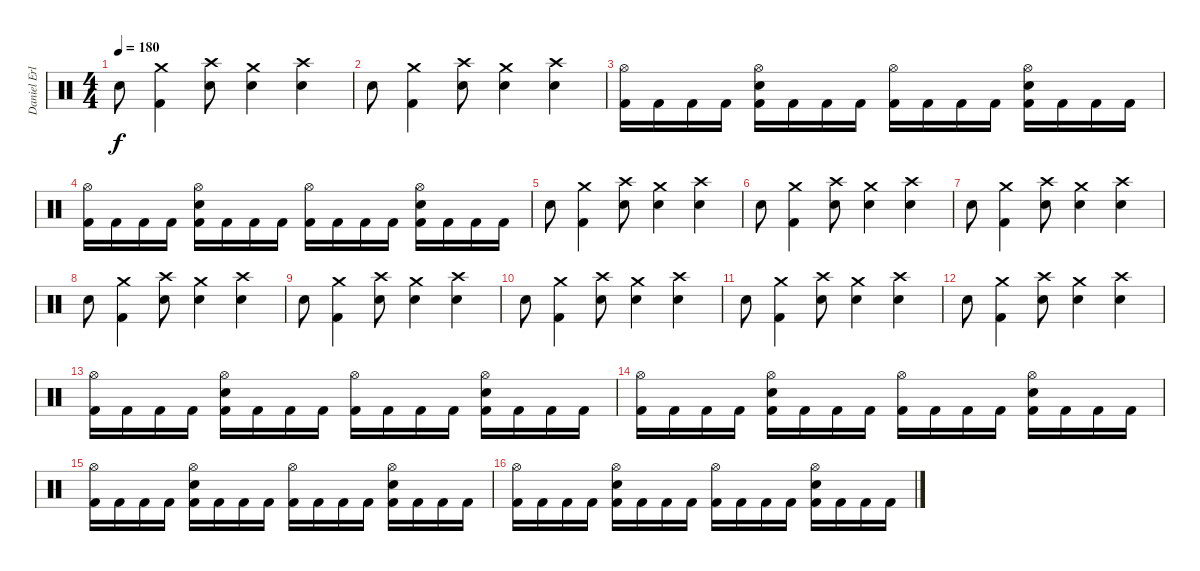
\track ("Daniel Erlandson" "Daniel Erl") {instrument percussion}
\staff {score}
\articulation defaults
\ts (4 4)
\tempo 180
\clef neutral
\ks c "Electric Snare (hit)".8{dy f}
("Crash medium (hit)" "Kick (hit) 2").4 ("Crash high (hit)" "Electric Snare (hit)").8 ("Crash medium (hit)" "Electric Snare (hit)").4 ("Crash high (hit)" "Electric Snare (hit)").4 |
"Electric Snare (hit)".8 ("Crash medium (hit)" "Kick (hit) 2").4 ("Crash high (hit)" "Electric Snare (hit)").8 ("Crash medium (hit)" "Electric Snare (hit)").4 ("Crash high (hit)" "Electric Snare (hit)").4 |
("Hi-Hat (open)" "Kick (hit) 2").16 "Kick (hit) 2".16 "Kick (hit) 2".16 "Kick (hit) 2".16 ("Hi-Hat (open)" "Electric Snare (hit)" "Kick (hit) 2").16 "Kick (hit) 2".16 "Kick (hit) 2".16 "Kick (hit) 2".16 ("Hi-Hat (open)" "Kick (hit) 2").16 "Kick (hit) 2".16 "Kick (hit) 2".16 "Kick (hit) 2".16 ("Hi-Hat (open)" "Electric Snare (hit)" "Kick (hit) 2").16 "Kick (hit) 2".16 "Kick (hit) 2".16 "Kick (hit) 2".16 |
("Hi-Hat (open)" "Kick (hit) 2").16 "Kick (hit) 2".16 "Kick (hit) 2".16 "Kick (hit) 2".16 ("Hi-Hat (open)" "Electric Snare (hit)" "Kick (hit) 2").16 "Kick (hit) 2".16 "Kick (hit) 2".16 "Kick (hit) 2".16 ("Hi-Hat (open)" "Kick (hit) 2").16 "Kick (hit) 2".16 "Kick (hit) 2".16 "Kick (hit) 2".16 ("Hi-Hat (open)" "Electric Snare (hit)" "Kick (hit) 2").16 "Kick (hit) 2".16 "Kick (hit) 2".16 "Kick (hit) 2".16 |
"Electric Snare (hit)".8 ("Crash medium (hit)" "Kick (hit) 2").4 ("Crash high (hit)" "Electric Snare (hit)").8 ("Crash medium (hit)" "Electric Snare (hit)").4 ("Crash high (hit)" "Electric Snare (hit)").4 |
"Electric Snare (hit)".8 ("Crash medium (hit)" "Kick (hit) 2").4 ("Crash high (hit)" "Electric Snare (hit)").8 ("Crash medium (hit)" "Electric Snare (hit)").4 ("Crash high (hit)" "Electric Snare (hit)").4 |
"Electric Snare (hit)".8 ("Crash medium (hit)" "Kick (hit) 2").4 ("Crash high (hit)" "Electric Snare (hit)").8 ("Crash medium (hit)" "Electric Snare (hit)").4 ("Crash high (hit)" "Electric Snare (hit)").4 |
"Electric Snare (hit)".8 ("Crash medium (hit)" "Kick (hit) 2").4 ("Crash high (hit)" "Electric Snare (hit)").8 ("Crash medium (hit)" "Electric Snare (hit)").4 ("Crash high (hit)" "Electric Snare (hit)").4 |
"Electric Snare (hit)".8 ("Crash medium (hit)" "Kick (hit) 2").4 ("Crash high (hit)" "Electric Snare (hit)").8 ("Crash medium (hit)" "Electric Snare (hit)").4 ("Crash high (hit)" "Electric Snare (hit)").4 |
"Electric Snare (hit)".8 ("Crash medium (hit)" "Kick (hit) 2").4 ("Crash high (hit)" "Electric Snare (hit)").8 ("Crash medium (hit)" "Electric Snare (hit)").4 ("Crash high (hit)" "Electric Snare (hit)").4 |
"Electric Snare (hit)".8 ("Crash medium (hit)" "Kick (hit) 2").4 ("Crash high (hit)" "Electric Snare (hit)").8 ("Crash medium (hit)" "Electric Snare (hit)").4 ("Crash high (hit)" "Electric Snare (hit)").4 |
"Electric Snare (hit)".8 ("Crash medium (hit)" "Kick (hit) 2").4 ("Crash high (hit)" "Electric Snare (hit)").8 ("Crash medium (hit)" "Electric Snare (hit)").4 ("Crash high (hit)" "Electric Snare (hit)").4 |
("Hi-Hat (open)" "Kick (hit) 2").16 "Kick (hit) 2".16 "Kick (hit) 2".16 "Kick (hit) 2".16 ("Hi-Hat (open)" "Electric Snare (hit)" "Kick (hit) 2").16 "Kick (hit) 2".16 "Kick (hit) 2".16 "Kick (hit) 2".16 ("Hi-Hat (open)" "Kick (hit) 2").16 "Kick (hit) 2".16 "Kick (hit) 2".16 "Kick (hit) 2".16 ("Hi-Hat (open)" "Electric Snare (hit)" "Kick (hit) 2").16 "Kick (hit) 2".16 "Kick (hit) 2".16 "Kick (hit) 2".16 |
("Hi-Hat (open)" "Kick (hit) 2").16 "Kick (hit) 2".16 "Kick (hit) 2".16 "Kick (hit) 2".16 ("Hi-Hat (open)" "Electric Snare (hit)" "Kick (hit) 2").16 "Kick (hit) 2".16 "Kick (hit) 2".16 "Kick (hit) 2".16 ("Hi-Hat (open)" "Kick (hit) 2").16 "Kick (hit) 2".16 "Kick (hit) 2".16 "Kick (hit) 2".16 ("Hi-Hat (open)" "Electric Snare (hit)" "Kick (hit) 2").16 "Kick (hit) 2".16 "Kick (hit) 2".16 "Kick (hit) 2".16 |
("Hi-Hat (open)" "Kick (hit) 2").16 "Kick (hit) 2".16 "Kick (hit) 2".16 "Kick (hit) 2".16 ("Hi-Hat (open)" "Electric Snare (hit)" "Kick (hit) 2").16 "Kick (hit) 2".16 "Kick (hit) 2".16 "Kick (hit) 2".16 ("Hi-Hat (open)" "Kick (hit) 2").16 "Kick (hit) 2".16 "Kick (hit) 2".16 "Kick (hit) 2".16 ("Hi-Hat (open)" "Electric Snare (hit)" "Kick (hit) 2").16 "Kick (hit) 2".16 "Kick (hit) 2".16 "Kick (hit) 2".16 |
("Hi-Hat (open)" "Kick (hit) 2").16 "Kick (hit) 2".16 "Kick (hit) 2".16 "Kick (hit) 2".16 ("Hi-Hat (open)" "Electric Snare (hit)" "Kick (hit) 2").16 "Kick (hit) 2".16 "Kick (hit) 2".16 "Kick (hit) 2".16 ("Hi-Hat (open)" "Kick (hit) 2").16 "Kick (hit) 2".16 "Kick (hit) 2".16 "Kick (hit) 2".16 ("Hi-Hat (open)" "Electric Snare (hit)" "Kick (hit) 2").16 "Kick (hit) 2".16 "Kick (hit) 2".16 "Kick (hit) 2".16
